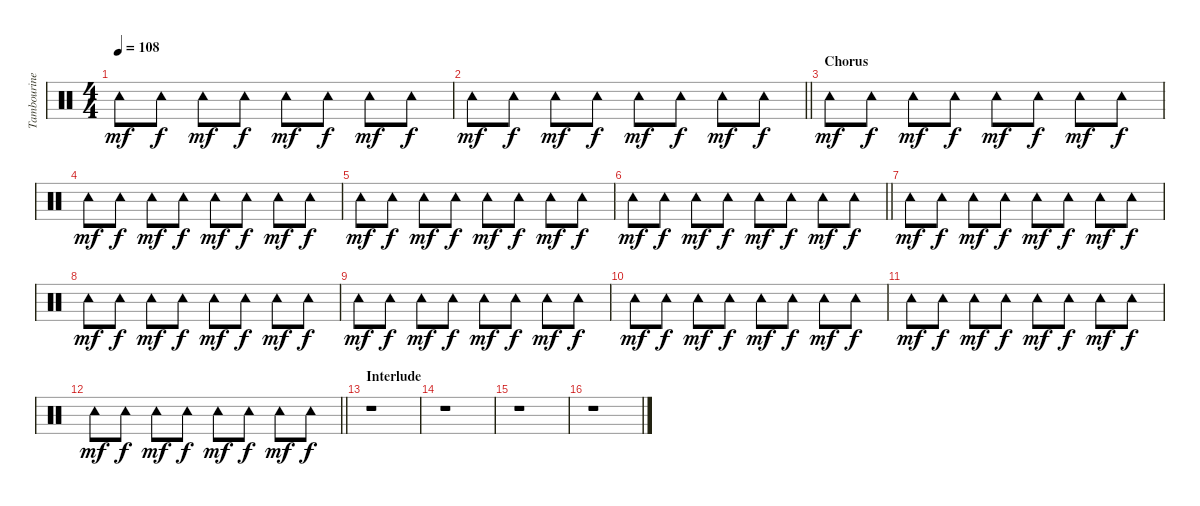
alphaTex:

\track ("Tambourine" "Tambourine") {instrument percussion}
\staff {score}
\articulation defaults
\ts (4 4)
\tempo 108
\clef neutral
\ks c "Tambourine (hit)".8{dy mf} "Tambourine (hit)".8{dy f} "Tambourine (hit)".8{dy mf} "Tambourine (hit)".8{dy f} "Tambourine (hit)".8{dy mf} "Tambourine (hit)".8{dy f} "Tambourine (hit)".8{dy mf} "Tambourine (hit)".8{dy f}
|
\barLineRight lightlight "Tambourine (hit)".8{dy mf} "Tambourine (hit)".8{dy f} "Tambourine (hit)".8{dy mf} "Tambourine (hit)".8{dy f} "Tambourine (hit)".8{dy mf} "Tambourine (hit)".8{dy f} "Tambourine (hit)".8{dy mf} "Tambourine (hit)".8{dy f}
|
\section ("" "Chorus")
"Tambourine (hit)".8{dy mf} "Tambourine (hit)".8{dy f} "Tambourine (hit)".8{dy mf} "Tambourine (hit)".8{dy f} "Tambourine (hit)".8{dy mf} "Tambourine (hit)".8{dy f} "Tambourine (hit)".8{dy mf} "Tambourine (hit)".8{dy f} |
"Tambourine (hit)".8{dy mf} "Tambourine (hit)".8{dy f} "Tambourine (hit)".8{dy mf} "Tambourine (hit)".8{dy f} "Tambourine (hit)".8{dy mf} "Tambourine (hit)".8{dy f} "Tambourine (hit)".8{dy mf} "Tambourine (hit)".8{dy f} |
"Tambourine (hit)".8{dy mf} "Tambourine (hit)".8{dy f} "Tambourine (hit)".8{dy mf} "Tambourine (hit)".8{dy f} "Tambourine (hit)".8{dy mf} "Tambourine (hit)".8{dy f} "Tambourine (hit)".8{dy mf} "Tambourine (hit)".8{dy f} |
\barLineRight lightlight "Tambourine (hit)".8{dy mf} "Tambourine (hit)".8{dy f} "Tambourine (hit)".8{dy mf} "Tambourine (hit)".8{dy f} "Tambourine (hit)".8{dy mf} "Tambourine (hit)".8{dy f} "Tambourine (hit)".8{dy mf} "Tambourine (hit)".8{dy f}
|
"Tambourine (hit)".8{dy mf} "Tambourine (hit)".8{dy f} "Tambourine (hit)".8{dy mf} "Tambourine (hit)".8{dy f} "Tambourine (hit)".8{dy mf} "Tambourine (hit)".8{dy f} "Tambourine (hit)".8{dy mf} "Tambourine (hit)".8{dy f} |
"Tambourine (hit)".8{dy mf} "Tambourine (hit)".8{dy f} "Tambourine (hit)".8{dy mf} "Tambourine (hit)".8{dy f} "Tambourine (hit)".8{dy mf} "Tambourine (hit)".8{dy f} "Tambourine (hit)".8{dy mf} "Tambourine (hit)".8{dy f} |
"Tambourine (hit)".8{dy mf} "Tambourine (hit)".8{dy f} "Tambourine (hit)".8{dy mf} "Tambourine (hit)".8{dy f} "Tambourine (hit)".8{dy mf} "Tambourine (hit)".8{dy f} "Tambourine (hit)".8{dy mf} "Tambourine (hit)".8{dy f} |
"Tambourine (hit)".8{dy mf} "Tambourine (hit)".8{dy f} "Tambourine (hit)".8{dy mf} "Tambourine (hit)".8{dy f} "Tambourine (hit)".8{dy mf} "Tambourine (hit)".8{dy f} "Tambourine (hit)".8{dy mf} "Tambourine (hit)".8{dy f} |
"Tambourine (hit)".8{dy mf} "Tambourine (hit)".8{dy f} "Tambourine (hit)".8{dy mf} "Tambourine (hit)".8{dy f} "Tambourine (hit)".8{dy mf} "Tambourine (hit)".8{dy f} "Tambourine (hit)".8{dy mf} "Tambourine (hit)".8{dy f} |
\barLineRight lightlight "Tambourine (hit)".8{dy mf} "Tambourine (hit)".8{dy f} "Tambourine (hit)".8{dy mf} "Tambourine (hit)".8{dy f} "Tambourine (hit)".8{dy mf} "Tambourine (hit)".8{dy f} "Tambourine (hit)".8{dy mf} "Tambourine (hit)".8{dy f}
|
\section ("" "Interlude")
r.1 |
r.1 |
r.1 |
r.1
